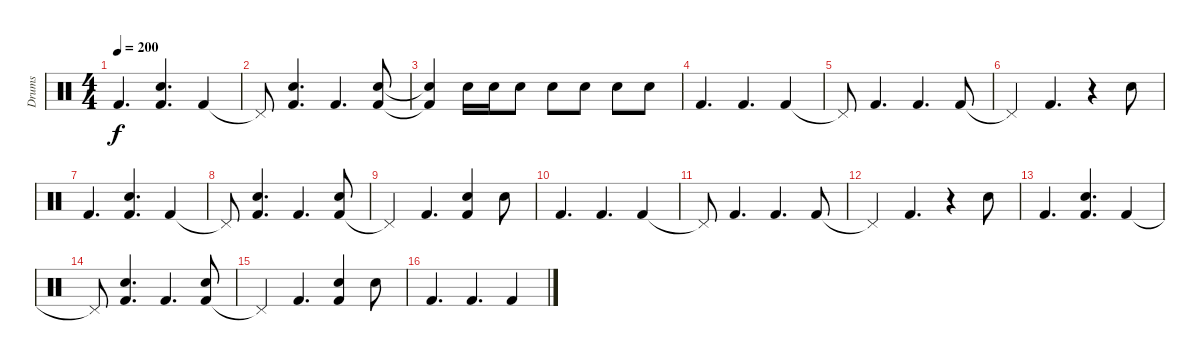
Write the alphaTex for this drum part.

\track ("Drums" "Drums") {instrument percussion}
\staff {score}
\articulation defaults
\ts (4 4)
\tempo 200
\clef neutral
\ks c "Kick (hit) 2".4{d dy f}
("Kick (hit) 2" "Snare (hit) 2").4{d} "Kick (hit) 2".4 |
"Pedal Hi-Hat (hit)"{t}.8 ("Kick (hit) 2" "Snare (hit) 2").4{d} "Kick (hit) 2".4{d} ("Kick (hit) 2" "Snare (hit) 2").8 |
("Kick (hit) 2"{t} "Snare (hit) 2"{t}).4 "Snare (hit) 2".16 "Snare (hit) 2".16 "Snare (hit) 2".8 "Snare (hit) 2".8 "Snare (hit) 2".8 "Snare (hit) 2".8 "Snare (hit) 2".8 |
"Kick (hit) 2".4{d} "Kick (hit) 2".4{d} "Kick (hit) 2".4 |
"Pedal Hi-Hat (hit)"{t}.8 "Kick (hit) 2".4{d} "Kick (hit) 2".4{d} "Kick (hit) 2".8 |
"Pedal Hi-Hat (hit)"{t}.4 "Kick (hit) 2".4{d} r.4 "Snare (hit) 2".8 |
"Kick (hit) 2".4{d} ("Kick (hit) 2" "Snare (hit) 2").4{d} "Kick (hit) 2".4 |
"Pedal Hi-Hat (hit)"{t}.8 ("Kick (hit) 2" "Snare (hit) 2").4{d} "Kick (hit) 2".4{d} ("Kick (hit) 2" "Snare (hit) 2").8 |
"Pedal Hi-Hat (hit)"{t}.4 "Kick (hit) 2".4{d} ("Kick (hit) 2" "Snare (hit) 2").4 "Snare (hit) 2".8 |
"Kick (hit) 2".4{d} "Kick (hit) 2".4{d} "Kick (hit) 2".4 |
"Pedal Hi-Hat (hit)"{t}.8 "Kick (hit) 2".4{d} "Kick (hit) 2".4{d} "Kick (hit) 2".8 |
"Pedal Hi-Hat (hit)"{t}.4 "Kick (hit) 2".4{d} r.4 "Snare (hit) 2".8 |
"Kick (hit) 2".4{d} ("Kick (hit) 2" "Snare (hit) 2").4{d} "Kick (hit) 2".4 |
"Pedal Hi-Hat (hit)"{t}.8 ("Kick (hit) 2" "Snare (hit) 2").4{d} "Kick (hit) 2".4{d} ("Kick (hit) 2" "Snare (hit) 2").8 |
"Pedal Hi-Hat (hit)"{t}.4 "Kick (hit) 2".4{d} ("Kick (hit) 2" "Snare (hit) 2").4 "Snare (hit) 2".8 |
"Kick (hit) 2".4{d} "Kick (hit) 2".4{d} "Kick (hit) 2".4
